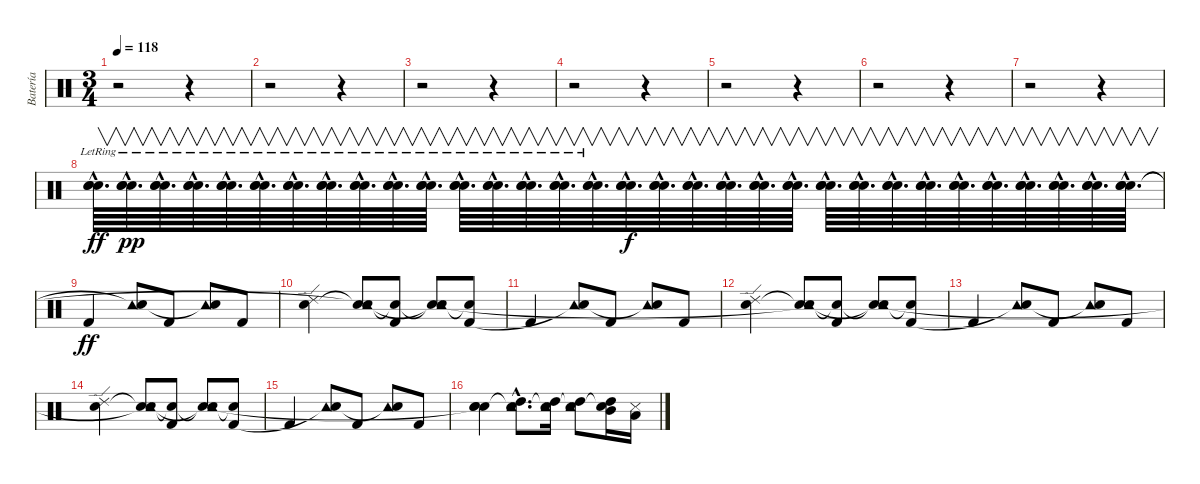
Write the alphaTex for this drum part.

\track ("Batería" "Batería") {instrument percussion}
\staff {score}
\articulation defaults
\ts (3 4)
\tempo 118
\clef neutral
\ks c
r.2{dy ff} r.4 |
r.2 r.4 |
r.2 r.4 |
r.2 r.4 |
r.2 r.4 |
r.2 r.4 |
r.2 r.4 |
("Snare (hit) 2"{hac} "Electric Snare (hit)"{lr} "Snare (hit) 2"{hac}).64{v d volume 8} ("Snare (hit) 2"{hac} "Electric Snare (hit)"{lr} "Snare (hit)"{hac}).64{v d dy pp} ("Snare (hit) 2"{hac} "Electric Snare (hit)"{lr} "Snare (hit) 2"{hac}).64{v d} ("Snare (hit) 2"{hac} "Electric Snare (hit)"{lr} "Snare (hit)"{hac}).64{v d} ("Snare (hit) 2"{hac} "Electric Snare (hit)"{lr} "Snare (hit) 2"{hac}).64{v d} ("Snare (hit) 2"{hac} "Electric Snare (hit)"{lr} "Snare (hit)"{hac}).64{v d} ("Snare (hit) 2"{hac} "Electric Snare (hit)"{lr} "Snare (hit) 2"{hac}).64{v d} ("Snare (hit) 2"{hac} "Electric Snare (hit)"{lr} "Snare (hit)"{hac}).64{v d} ("Snare (hit) 2"{hac} "Electric Snare (hit)"{lr} "Snare (hit) 2"{hac}).64{v d} ("Snare (hit) 2"{hac} "Electric Snare (hit)"{lr} "Snare (hit)"{hac}).64{v d} ("Snare (hit) 2"{hac} "Electric Snare (hit)"{lr} "Snare (hit) 2"{hac}).64{v d} ("Snare (hit) 2"{hac} "Electric Snare (hit)"{lr} "Snare (hit)"{hac}).64{v d} ("Snare (hit) 2"{hac} "Electric Snare (hit)"{lr} "Snare (hit) 2"{hac}).64{v d} ("Snare (hit) 2"{hac} "Electric Snare (hit)"{lr} "Snare (hit)"{hac}).64{v d} ("Snare (hit) 2"{hac} "Electric Snare (hit)"{lr} "Snare (hit) 2"{hac}).64{v d} ("Snare (hit) 2"{hac} "Electric Snare (hit)"{lr} "Snare (hit)"{hac}).64{v d} ("Snare (hit) 2"{hac} "Electric Snare (hit)"{hac} "Snare (hit) 2"{hac}).64{v d dy f} ("Snare (hit) 2"{hac} "Electric Snare (hit)"{hac} "Snare (hit)"{hac}).64{v d} ("Snare (hit) 2"{hac} "Electric Snare (hit)"{hac} "Snare (hit) 2"{hac}).64{v d} ("Snare (hit) 2"{hac} "Electric Snare (hit)"{hac} "Snare (hit)"{hac}).64{v d} ("Snare (hit) 2"{hac} "Electric Snare (hit)"{hac} "Snare (hit) 2"{hac}).64{v d} ("Snare (hit) 2"{hac} "Electric Snare (hit)"{hac} "Snare (hit)"{hac}).64{v d} ("Snare (hit) 2"{hac} "Electric Snare (hit)"{hac} "Snare (hit) 2"{hac}).64{v d} ("Snare (hit) 2"{hac} "Electric Snare (hit)"{hac} "Snare (hit)"{hac}).64{v d} ("Snare (hit) 2"{hac} "Electric Snare (hit)"{hac} "Snare (hit) 2"{hac}).64{v d} ("Snare (hit) 2"{hac} "Electric Snare (hit)"{hac} "Snare (hit)"{hac}).64{v d} ("Snare (hit) 2"{hac} "Electric Snare (hit)"{hac} "Snare (hit) 2"{hac}).64{v d} ("Snare (hit) 2"{hac} "Electric Snare (hit)"{hac} "Snare (hit)"{hac}).64{v d} ("Snare (hit) 2"{hac} "Electric Snare (hit)"{hac} "Snare (hit) 2"{hac}).64{v d} ("Snare (hit) 2"{hac} "Electric Snare (hit)"{hac} "Snare (hit)"{hac}).64{v d} ("Snare (hit) 2"{hac} "Electric Snare (hit)"{hac} "Snare (hit) 2"{hac}).64{v d} ("Snare (hit) 2"{hac} "Electric Snare (hit)"{hac} "Snare (hit)"{hac}).64{v d} |
"Kick (hit) 2".4{dy ff volume 16} ("Tambourine (hit)" "Snare (hit)"{t}).8 "Kick (hit) 2".8 ("Tambourine (hit)" "Snare (hit)"{t}).8 "Kick (hit) 2".8 |
("Snare (hit) 2" "Ride (edge) 2").4 ("Snare (hit)"{t} "Tambourine (hit)" "Snare (hit)"{t}).8 ("Snare (hit)"{t} "Kick (hit) 2").8 ("Snare (hit)"{t} "Tambourine (hit)" "Snare (hit)"{t}).8 ("Snare (hit)"{t} "Kick (hit) 2").8 |
"Kick (hit) 2".4 ("Tambourine (hit)" "Snare (hit)"{t}).8 "Kick (hit) 2".8 ("Tambourine (hit)" "Snare (hit)"{t}).8 "Kick (hit) 2".8 |
("Snare (hit) 2" "Ride (edge) 2").4 ("Snare (hit)"{t} "Tambourine (hit)" "Snare (hit)"{t}).8 ("Snare (hit)"{t} "Kick (hit) 2").8 ("Snare (hit)"{t} "Tambourine (hit)" "Snare (hit)"{t}).8 ("Snare (hit)"{t} "Kick (hit) 2").8 |
"Kick (hit) 2".4 ("Tambourine (hit)" "Snare (hit)"{t}).8 "Kick (hit) 2".8 ("Tambourine (hit)" "Snare (hit)"{t}).8 "Kick (hit) 2".8 |
("Snare (hit) 2" "Ride (edge) 2").4 ("Snare (hit)"{t} "Tambourine (hit)" "Snare (hit)"{t}).8 ("Snare (hit)"{t} "Kick (hit) 2").8 ("Snare (hit)"{t} "Tambourine (hit)" "Snare (hit)"{t}).8 ("Snare (hit)"{t} "Kick (hit) 2").8 |
"Kick (hit) 2".4 ("Tambourine (hit)" "Snare (hit)"{t}).8 "Kick (hit) 2".8 ("Tambourine (hit)" "Snare (hit)"{t}).8 "Kick (hit) 2".8 |
("Snare (hit) 2" "Snare (hit) 2" "Snare (hit)"{t}).4 ("Snare (hit)"{hac t} "Tambourine (hit)"{hac} "High Tom (hit)"{hac}).8{d} ("Snare (hit)"{t} "High Tom (hit)" "Tambourine (hit)").16 ("Snare (hit)"{t} "High Tom (hit)" "Tambourine (hit)").8 ("Snare (hit)"{t} "Mid Tom (hit)" "High Tom (hit)").16 ("Low Tom (hit)" "Snare (side stick) 3").16
